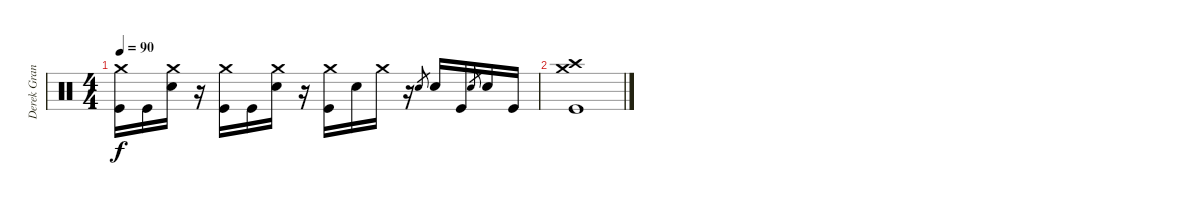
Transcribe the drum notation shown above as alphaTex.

\track ("Derek Grant" "Derek Gran") {instrument percussion}
\staff {score}
\articulation defaults
\ts (4 4)
\tempo 90
\clef neutral
\ks c
("Crash medium (hit)" "Kick (hit)").16{dy f} "Kick (hit)".16 ("Crash medium (hit)" "Electric Snare (hit)").16 r.16 ("Crash medium (hit)" "Kick (hit)").16 "Kick (hit)".16 ("Crash medium (hit)" "Electric Snare (hit)").16 r.16 ("Crash medium (hit)" "Kick (hit)").16 "Electric Snare (hit)".16 "Crash medium (hit)".16 r.16 "Electric Snare (hit)".8{gr} "Electric Snare (hit)".16 "Kick (hit)".16 "Electric Snare (hit)".8{gr} "Electric Snare (hit)".16 "Kick (hit)".16 |
("Crash high (hit)" "Crash medium (hit)" "Kick (hit)").1
